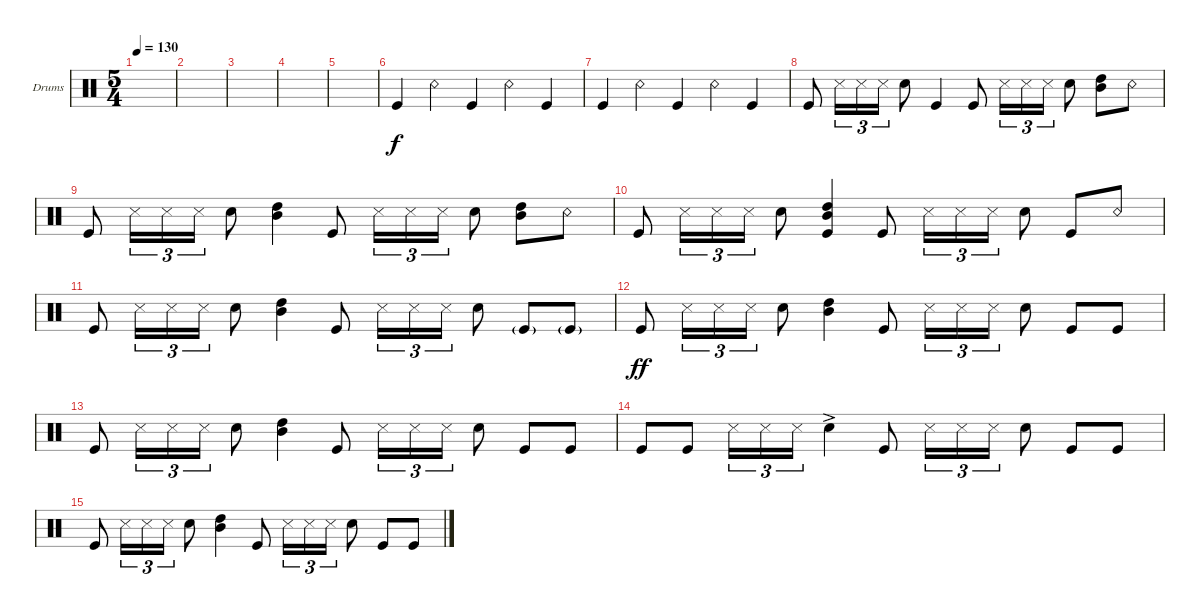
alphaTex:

\defaultSystemsLayout 4
\bracketExtendMode groupsimilarinstruments
\firstSystemTrackNameOrientation horizontal
\otherSystemsTrackNameOrientation horizontal
\track ("Drumkit" "Drums") {instrument percussion}
\staff {score}
\articulation defaults
\ts (5 4)
\tempo 130
\clef neutral
\ks c
|
|
|
|
|
"Kick (hit)".4 "Snare (rim shot)".4 "Kick (hit)".4 "Snare (rim shot)".4 "Kick (hit)".4 |
"Kick (hit)".4 "Snare (rim shot)".4 "Kick (hit)".4 "Snare (rim shot)".4 "Kick (hit)".4 |
"Kick (hit)".8 "Snare (side stick) 3".16{tu (3 2)} "Snare (side stick) 3".16{tu (3 2)} "Snare (side stick) 3".16{tu (3 2)} "Snare (hit) 2".8 "Kick (hit)".4 "Kick (hit)".8 "Snare (side stick) 3".16{tu (3 2)} "Snare (side stick) 3".16{tu (3 2)} "Snare (side stick) 3".16{tu (3 2)} "Snare (hit) 2".8 ("Mid Tom (hit)" "High Tom (hit)").8 "Snare (rim shot)".8 |
"Kick (hit)".8 "Snare (side stick) 3".16{tu (3 2)} "Snare (side stick) 3".16{tu (3 2)} "Snare (side stick) 3".16{tu (3 2)} "Snare (hit) 2".8 ("Mid Tom (hit)" "High Tom (hit)").4 "Kick (hit)".8 "Snare (side stick) 3".16{tu (3 2)} "Snare (side stick) 3".16{tu (3 2)} "Snare (side stick) 3".16{tu (3 2)} "Snare (hit) 2".8 ("Mid Tom (hit)" "High Tom (hit)").8 "Snare (rim shot)".8 |
"Kick (hit)".8 "Snare (side stick) 3".16{tu (3 2)} "Snare (side stick) 3".16{tu (3 2)} "Snare (side stick) 3".16{tu (3 2)} "Snare (hit) 2".8 ("Kick (hit)" "Mid Tom (hit)" "High Tom (hit)").4 "Kick (hit)".8 "Snare (side stick) 3".16{tu (3 2)} "Snare (side stick) 3".16{tu (3 2)} "Snare (side stick) 3".16{tu (3 2)} "Snare (hit) 2".8 "Kick (hit)".8 "Snare (rim shot)".8 |
"Kick (hit)".8 "Snare (side stick) 3".16{tu (3 2)} "Snare (side stick) 3".16{tu (3 2)} "Snare (side stick) 3".16{tu (3 2)} "Snare (hit) 2".8 ("Mid Tom (hit)" "High Tom (hit)").4 "Kick (hit)".8 "Snare (side stick) 3".16{tu (3 2)} "Snare (side stick) 3".16{tu (3 2)} "Snare (side stick) 3".16{tu (3 2)} "Snare (hit) 2".8 "Kick (hit)"{g}.8 "Kick (hit)"{g}.8 |
"Kick (hit)".8{dy ff} "Snare (side stick) 3".16{tu (3 2)} "Snare (side stick) 3".16{tu (3 2)} "Snare (side stick) 3".16{tu (3 2)} "Snare (hit) 2".8 ("Mid Tom (hit)" "High Tom (hit)").4 "Kick (hit)".8 "Snare (side stick) 3".16{tu (3 2)} "Snare (side stick) 3".16{tu (3 2)} "Snare (side stick) 3".16{tu (3 2)} "Snare (hit) 2".8 "Kick (hit)".8 "Kick (hit)".8 |
"Kick (hit)".8 "Snare (side stick) 3".16{tu (3 2)} "Snare (side stick) 3".16{tu (3 2)} "Snare (side stick) 3".16{tu (3 2)} "Snare (hit) 2".8 ("Mid Tom (hit)" "High Tom (hit)").4 "Kick (hit)".8 "Snare (side stick) 3".16{tu (3 2)} "Snare (side stick) 3".16{tu (3 2)} "Snare (side stick) 3".16{tu (3 2)} "Snare (hit) 2".8 "Kick (hit)".8 "Kick (hit)".8 |
"Kick (hit)".8 "Kick (hit)".8 "Snare (side stick) 3".16{tu (3 2)} "Snare (side stick) 3".16{tu (3 2)} "Snare (side stick) 3".16{tu (3 2)} "Snare (hit) 2"{ac}.4 "Kick (hit)".8 "Snare (side stick) 3".16{tu (3 2)} "Snare (side stick) 3".16{tu (3 2)} "Snare (side stick) 3".16{tu (3 2)} "Snare (hit) 2".8 "Kick (hit)".8 "Kick (hit)".8 |
"Kick (hit)".8 "Snare (side stick) 3".16{tu (3 2)} "Snare (side stick) 3".16{tu (3 2)} "Snare (side stick) 3".16{tu (3 2)} "Snare (hit) 2".8 ("Mid Tom (hit)" "High Tom (hit)").4 "Kick (hit)".8 "Snare (side stick) 3".16{tu (3 2)} "Snare (side stick) 3".16{tu (3 2)} "Snare (side stick) 3".16{tu (3 2)} "Snare (hit) 2".8 "Kick (hit)".8 "Kick (hit)".8
